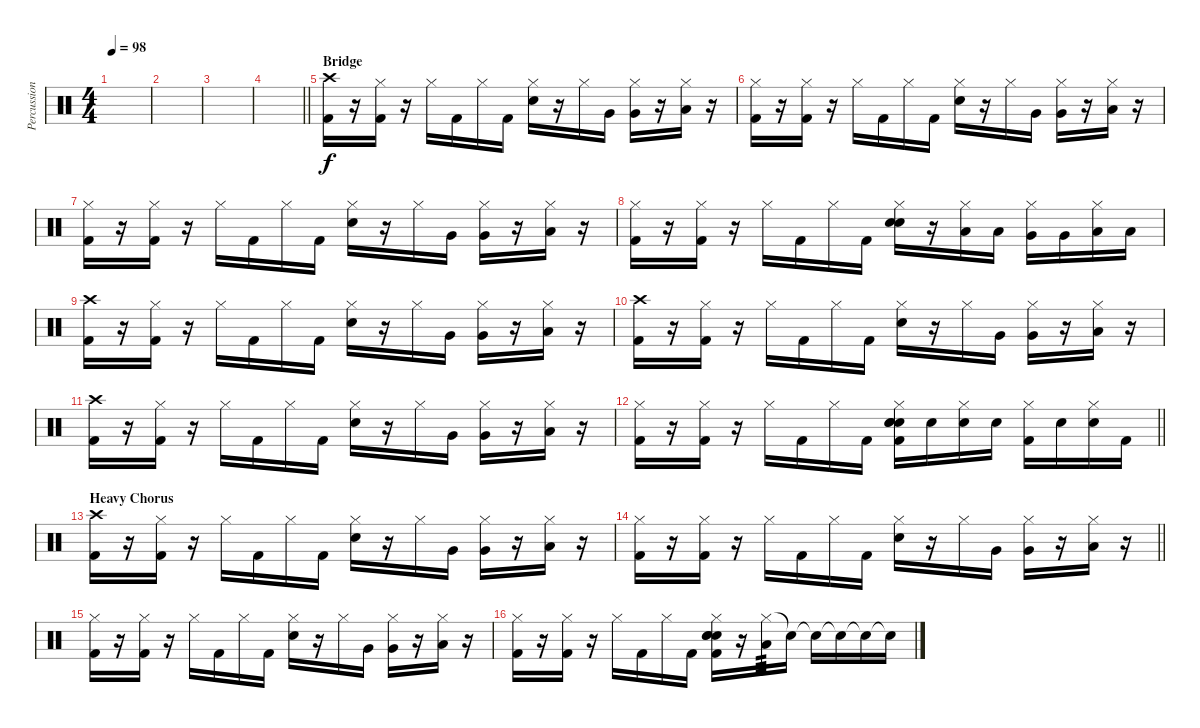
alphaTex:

\track ("Percussion" "Percussion") {instrument percussion}
\staff {score}
\articulation defaults
\ts (4 4)
\tempo 98
\clef neutral
\ks c
|
|
|
\barLineRight lightlight
|
\section ("" "Bridge")
("Crash high (hit)" "Kick (hit) 2").16 r.16 ("Hi-Hat (closed)" "Kick (hit) 2").16 r.16 "Hi-Hat (closed)".16 "Kick (hit) 2".16 "Hi-Hat (closed)".16 "Kick (hit) 2".16 ("Hi-Hat (closed)" "Electric Snare (hit)").16 r.16 "Hi-Hat (closed)".16 "Very Low Tom (hit)".16 ("Hi-Hat (closed)" "Very Low Tom (hit)").16 r.16 ("Hi-Hat (closed)" "Low Floor Tom (hit)").16 r.16 |
("Hi-Hat (closed)" "Kick (hit) 2").16 r.16 ("Hi-Hat (closed)" "Kick (hit) 2").16 r.16 "Hi-Hat (closed)".16 "Kick (hit) 2".16 "Hi-Hat (closed)".16 "Kick (hit) 2".16 ("Hi-Hat (closed)" "Electric Snare (hit)").16 r.16 "Hi-Hat (closed)".16 "Very Low Tom (hit)".16 ("Hi-Hat (closed)" "Very Low Tom (hit)").16 r.16 ("Hi-Hat (closed)" "Low Floor Tom (hit)").16 r.16 |
("Hi-Hat (closed)" "Kick (hit) 2").16 r.16 ("Hi-Hat (closed)" "Kick (hit) 2").16 r.16 "Hi-Hat (closed)".16 "Kick (hit) 2".16 "Hi-Hat (closed)".16 "Kick (hit) 2".16 ("Hi-Hat (closed)" "Electric Snare (hit)").16 r.16 "Hi-Hat (closed)".16 "Very Low Tom (hit)".16 ("Hi-Hat (closed)" "Very Low Tom (hit)").16 r.16 ("Hi-Hat (closed)" "Low Floor Tom (hit)").16 r.16 |
("Hi-Hat (closed)" "Kick (hit) 2").16 r.16 ("Hi-Hat (closed)" "Kick (hit) 2").16 r.16 "Hi-Hat (closed)".16 "Kick (hit) 2".16 "Hi-Hat (closed)".16 "Kick (hit) 2".16 ("Hi-Hat (closed)" "Electric Snare (hit)" "Electric Snare (hit)").16 r.16 ("Hi-Hat (closed)" "Low Tom (hit)").16 "Low Tom (hit)".16 ("Hi-Hat (closed)" "Very Low Tom (hit)").16 "Very Low Tom (hit)".16 ("Hi-Hat (closed)" "Low Floor Tom (hit)").16 "Low Floor Tom (hit)".16 |
("Crash high (hit)" "Kick (hit) 2").16 r.16 ("Hi-Hat (closed)" "Kick (hit) 2").16 r.16 "Hi-Hat (closed)".16 "Kick (hit) 2".16 "Hi-Hat (closed)".16 "Kick (hit) 2".16 ("Hi-Hat (closed)" "Electric Snare (hit)").16 r.16 "Hi-Hat (closed)".16 "Very Low Tom (hit)".16 ("Hi-Hat (closed)" "Very Low Tom (hit)").16 r.16 ("Hi-Hat (closed)" "Low Floor Tom (hit)").16 r.16 |
("Crash high (hit)" "Kick (hit) 2").16 r.16 ("Hi-Hat (closed)" "Kick (hit) 2").16 r.16 "Hi-Hat (closed)".16 "Kick (hit) 2".16 "Hi-Hat (closed)".16 "Kick (hit) 2".16 ("Hi-Hat (closed)" "Electric Snare (hit)").16 r.16 "Hi-Hat (closed)".16 "Very Low Tom (hit)".16 ("Hi-Hat (closed)" "Very Low Tom (hit)").16 r.16 ("Hi-Hat (closed)" "Low Floor Tom (hit)").16 r.16 |
("Crash high (hit)" "Kick (hit) 2").16 r.16 ("Hi-Hat (closed)" "Kick (hit) 2").16 r.16 "Hi-Hat (closed)".16 "Kick (hit) 2".16 "Hi-Hat (closed)".16 "Kick (hit) 2".16 ("Hi-Hat (closed)" "Electric Snare (hit)").16 r.16 "Hi-Hat (closed)".16 "Very Low Tom (hit)".16 ("Hi-Hat (closed)" "Very Low Tom (hit)").16 r.16 ("Hi-Hat (closed)" "Low Floor Tom (hit)").16 r.16 |
\barLineRight lightlight
("Hi-Hat (closed)" "Kick (hit) 2").16 r.16 ("Hi-Hat (closed)" "Kick (hit) 2").16 r.16 "Hi-Hat (closed)".16 "Kick (hit) 2".16 "Hi-Hat (closed)".16 "Kick (hit) 2".16 ("Hi-Hat (closed)" "Electric Snare (hit)" "Electric Snare (hit)" "Electric Snare (hit)" "Kick (hit) 2").16 "Electric Snare (hit)".16 ("Hi-Hat (closed)" "Electric Snare (hit)").16 "Electric Snare (hit)".16 ("Hi-Hat (closed)" "Kick (hit) 2").16 "Electric Snare (hit)".16 ("Hi-Hat (closed)" "Electric Snare (hit)").16 "Kick (hit) 2".16 |
\section ("" "Heavy Chorus")
("Crash high (hit)" "Kick (hit) 2").16 r.16 ("Hi-Hat (closed)" "Kick (hit) 2").16 r.16 "Hi-Hat (closed)".16 "Kick (hit) 2".16 "Hi-Hat (closed)".16 "Kick (hit) 2".16 ("Hi-Hat (closed)" "Electric Snare (hit)").16 r.16 "Hi-Hat (closed)".16 "Very Low Tom (hit)".16 ("Hi-Hat (closed)" "Very Low Tom (hit)").16 r.16 ("Hi-Hat (closed)" "Low Floor Tom (hit)").16 r.16 |
\barLineRight lightlight
("Hi-Hat (closed)" "Kick (hit) 2").16 r.16 ("Hi-Hat (closed)" "Kick (hit) 2").16 r.16 "Hi-Hat (closed)".16 "Kick (hit) 2".16 "Hi-Hat (closed)".16 "Kick (hit) 2".16 ("Hi-Hat (closed)" "Electric Snare (hit)").16 r.16 "Hi-Hat (closed)".16 "Very Low Tom (hit)".16 ("Hi-Hat (closed)" "Very Low Tom (hit)").16 r.16 ("Hi-Hat (closed)" "Low Floor Tom (hit)").16 r.16 |
("Hi-Hat (closed)" "Kick (hit) 2").16 r.16 ("Hi-Hat (closed)" "Kick (hit) 2").16 r.16 "Hi-Hat (closed)".16 "Kick (hit) 2".16 "Hi-Hat (closed)".16 "Kick (hit) 2".16 ("Hi-Hat (closed)" "Electric Snare (hit)").16 r.16 "Hi-Hat (closed)".16 "Very Low Tom (hit)".16 ("Hi-Hat (closed)" "Very Low Tom (hit)").16 r.16 ("Hi-Hat (closed)" "Low Floor Tom (hit)").16 r.16 |
("Hi-Hat (closed)" "Kick (hit) 2").16 r.16 ("Hi-Hat (closed)" "Kick (hit) 2").16 r.16 "Hi-Hat (closed)".16 "Kick (hit) 2".16 "Hi-Hat (closed)".16 "Kick (hit) 2".16 ("Hi-Hat (closed)" "Electric Snare (hit)" "Electric Snare (hit)" "Electric Snare (hit)" "Kick (hit) 2").16 r.16 ("Hi-Hat (closed)" "Low Tom (hit)").16{tp 3} "Snare (hit)"{t}.16 "Snare (hit)"{t}.16 "Snare (hit)"{t}.16 "Snare (hit)"{t}.16 "Snare (hit)"{t}.16
